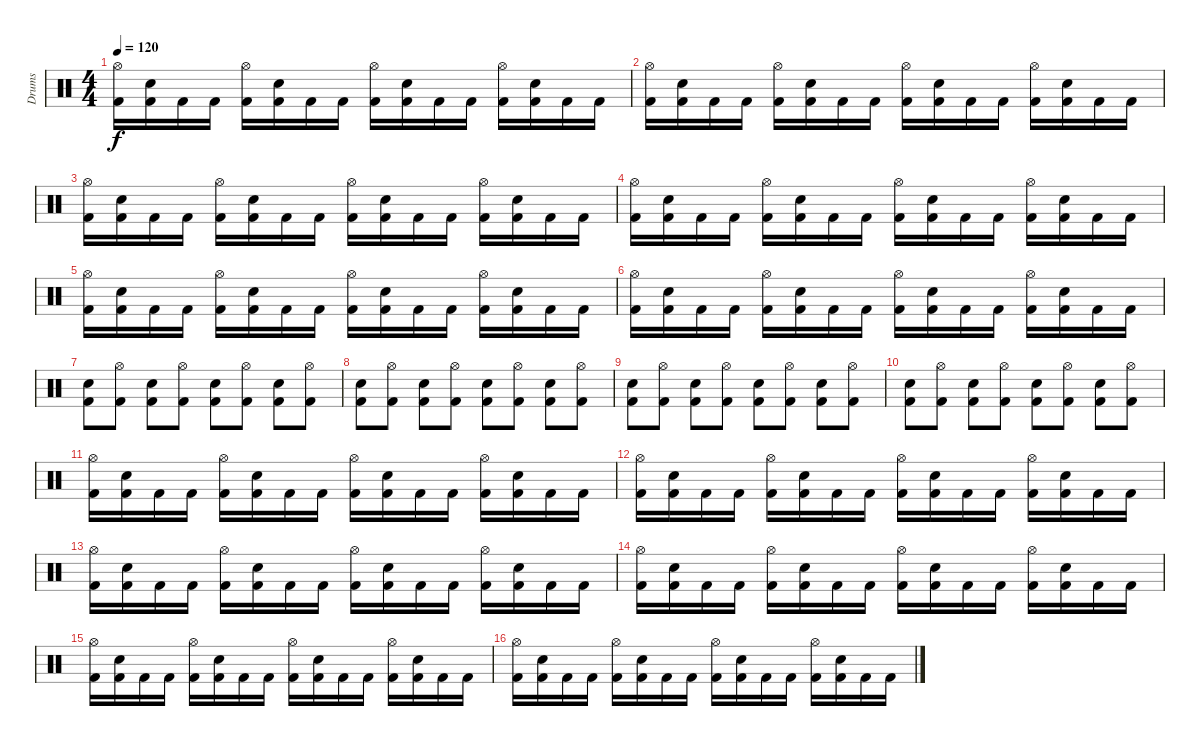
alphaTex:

\track ("Drums" "Drums") {instrument percussion}
\staff {score}
\articulation defaults
\ts (4 4)
\tempo 120
\clef neutral
\ks c
("Hi-Hat (open)" "Kick (hit) 2").16{dy f} ("Snare (hit) 2" "Kick (hit) 2").16 "Kick (hit) 2".16 "Kick (hit) 2".16 ("Hi-Hat (open)" "Kick (hit) 2").16 ("Snare (hit) 2" "Kick (hit) 2").16 "Kick (hit) 2".16 "Kick (hit) 2".16 ("Hi-Hat (open)" "Kick (hit) 2").16 ("Snare (hit) 2" "Kick (hit) 2").16 "Kick (hit) 2".16 "Kick (hit) 2".16 ("Hi-Hat (open)" "Kick (hit) 2").16 ("Snare (hit) 2" "Kick (hit) 2").16 "Kick (hit) 2".16 "Kick (hit) 2".16 |
("Hi-Hat (open)" "Kick (hit) 2").16 ("Snare (hit) 2" "Kick (hit) 2").16 "Kick (hit) 2".16 "Kick (hit) 2".16 ("Hi-Hat (open)" "Kick (hit) 2").16 ("Snare (hit) 2" "Kick (hit) 2").16 "Kick (hit) 2".16 "Kick (hit) 2".16 ("Hi-Hat (open)" "Kick (hit) 2").16 ("Snare (hit) 2" "Kick (hit) 2").16 "Kick (hit) 2".16 "Kick (hit) 2".16 ("Hi-Hat (open)" "Kick (hit) 2").16 ("Snare (hit) 2" "Kick (hit) 2").16 "Kick (hit) 2".16 "Kick (hit) 2".16 |
("Hi-Hat (open)" "Kick (hit) 2").16 ("Snare (hit) 2" "Kick (hit) 2").16 "Kick (hit) 2".16 "Kick (hit) 2".16 ("Hi-Hat (open)" "Kick (hit) 2").16 ("Snare (hit) 2" "Kick (hit) 2").16 "Kick (hit) 2".16 "Kick (hit) 2".16 ("Hi-Hat (open)" "Kick (hit) 2").16 ("Snare (hit) 2" "Kick (hit) 2").16 "Kick (hit) 2".16 "Kick (hit) 2".16 ("Hi-Hat (open)" "Kick (hit) 2").16 ("Snare (hit) 2" "Kick (hit) 2").16 "Kick (hit) 2".16 "Kick (hit) 2".16 |
("Hi-Hat (open)" "Kick (hit) 2").16 ("Snare (hit) 2" "Kick (hit) 2").16 "Kick (hit) 2".16 "Kick (hit) 2".16 ("Hi-Hat (open)" "Kick (hit) 2").16 ("Snare (hit) 2" "Kick (hit) 2").16 "Kick (hit) 2".16 "Kick (hit) 2".16 ("Hi-Hat (open)" "Kick (hit) 2").16 ("Snare (hit) 2" "Kick (hit) 2").16 "Kick (hit) 2".16 "Kick (hit) 2".16 ("Hi-Hat (open)" "Kick (hit) 2").16 ("Snare (hit) 2" "Kick (hit) 2").16 "Kick (hit) 2".16 "Kick (hit) 2".16 |
("Hi-Hat (open)" "Kick (hit) 2").16 ("Snare (hit) 2" "Kick (hit) 2").16 "Kick (hit) 2".16 "Kick (hit) 2".16 ("Hi-Hat (open)" "Kick (hit) 2").16 ("Snare (hit) 2" "Kick (hit) 2").16 "Kick (hit) 2".16 "Kick (hit) 2".16 ("Hi-Hat (open)" "Kick (hit) 2").16 ("Snare (hit) 2" "Kick (hit) 2").16 "Kick (hit) 2".16 "Kick (hit) 2".16 ("Hi-Hat (open)" "Kick (hit) 2").16 ("Snare (hit) 2" "Kick (hit) 2").16 "Kick (hit) 2".16 "Kick (hit) 2".16 |
("Hi-Hat (open)" "Kick (hit) 2").16 ("Snare (hit) 2" "Kick (hit) 2").16 "Kick (hit) 2".16 "Kick (hit) 2".16 ("Hi-Hat (open)" "Kick (hit) 2").16 ("Snare (hit) 2" "Kick (hit) 2").16 "Kick (hit) 2".16 "Kick (hit) 2".16 ("Hi-Hat (open)" "Kick (hit) 2").16 ("Snare (hit) 2" "Kick (hit) 2").16 "Kick (hit) 2".16 "Kick (hit) 2".16 ("Hi-Hat (open)" "Kick (hit) 2").16 ("Snare (hit) 2" "Kick (hit) 2").16 "Kick (hit) 2".16 "Kick (hit) 2".16 |
("Snare (hit) 2" "Kick (hit) 2").8 ("Hi-Hat (open)" "Kick (hit) 2").8 ("Snare (hit) 2" "Kick (hit) 2").8 ("Hi-Hat (open)" "Kick (hit) 2").8 ("Snare (hit) 2" "Kick (hit) 2").8 ("Hi-Hat (open)" "Kick (hit) 2").8 ("Snare (hit) 2" "Kick (hit) 2").8 ("Hi-Hat (open)" "Kick (hit) 2").8 |
("Snare (hit) 2" "Kick (hit) 2").8 ("Hi-Hat (open)" "Kick (hit) 2").8 ("Snare (hit) 2" "Kick (hit) 2").8 ("Hi-Hat (open)" "Kick (hit) 2").8 ("Snare (hit) 2" "Kick (hit) 2").8 ("Hi-Hat (open)" "Kick (hit) 2").8 ("Snare (hit) 2" "Kick (hit) 2").8 ("Hi-Hat (open)" "Kick (hit) 2").8 |
("Snare (hit) 2" "Kick (hit) 2").8 ("Hi-Hat (open)" "Kick (hit) 2").8 ("Snare (hit) 2" "Kick (hit) 2").8 ("Hi-Hat (open)" "Kick (hit) 2").8 ("Snare (hit) 2" "Kick (hit) 2").8 ("Hi-Hat (open)" "Kick (hit) 2").8 ("Snare (hit) 2" "Kick (hit) 2").8 ("Hi-Hat (open)" "Kick (hit) 2").8 |
("Snare (hit) 2" "Kick (hit) 2").8 ("Hi-Hat (open)" "Kick (hit) 2").8 ("Snare (hit) 2" "Kick (hit) 2").8 ("Hi-Hat (open)" "Kick (hit) 2").8 ("Snare (hit) 2" "Kick (hit) 2").8 ("Hi-Hat (open)" "Kick (hit) 2").8 ("Snare (hit) 2" "Kick (hit) 2").8 ("Hi-Hat (open)" "Kick (hit) 2").8 |
("Hi-Hat (open)" "Kick (hit) 2").16 ("Snare (hit) 2" "Kick (hit) 2").16 "Kick (hit) 2".16 "Kick (hit) 2".16 ("Hi-Hat (open)" "Kick (hit) 2").16 ("Snare (hit) 2" "Kick (hit) 2").16 "Kick (hit) 2".16 "Kick (hit) 2".16 ("Hi-Hat (open)" "Kick (hit) 2").16 ("Snare (hit) 2" "Kick (hit) 2").16 "Kick (hit) 2".16 "Kick (hit) 2".16 ("Hi-Hat (open)" "Kick (hit) 2").16 ("Snare (hit) 2" "Kick (hit) 2").16 "Kick (hit) 2".16 "Kick (hit) 2".16 |
("Hi-Hat (open)" "Kick (hit) 2").16 ("Snare (hit) 2" "Kick (hit) 2").16 "Kick (hit) 2".16 "Kick (hit) 2".16 ("Hi-Hat (open)" "Kick (hit) 2").16 ("Snare (hit) 2" "Kick (hit) 2").16 "Kick (hit) 2".16 "Kick (hit) 2".16 ("Hi-Hat (open)" "Kick (hit) 2").16 ("Snare (hit) 2" "Kick (hit) 2").16 "Kick (hit) 2".16 "Kick (hit) 2".16 ("Hi-Hat (open)" "Kick (hit) 2").16 ("Snare (hit) 2" "Kick (hit) 2").16 "Kick (hit) 2".16 "Kick (hit) 2".16 |
("Hi-Hat (open)" "Kick (hit) 2").16 ("Snare (hit) 2" "Kick (hit) 2").16 "Kick (hit) 2".16 "Kick (hit) 2".16 ("Hi-Hat (open)" "Kick (hit) 2").16 ("Snare (hit) 2" "Kick (hit) 2").16 "Kick (hit) 2".16 "Kick (hit) 2".16 ("Hi-Hat (open)" "Kick (hit) 2").16 ("Snare (hit) 2" "Kick (hit) 2").16 "Kick (hit) 2".16 "Kick (hit) 2".16 ("Hi-Hat (open)" "Kick (hit) 2").16 ("Snare (hit) 2" "Kick (hit) 2").16 "Kick (hit) 2".16 "Kick (hit) 2".16 |
("Hi-Hat (open)" "Kick (hit) 2").16 ("Snare (hit) 2" "Kick (hit) 2").16 "Kick (hit) 2".16 "Kick (hit) 2".16 ("Hi-Hat (open)" "Kick (hit) 2").16 ("Snare (hit) 2" "Kick (hit) 2").16 "Kick (hit) 2".16 "Kick (hit) 2".16 ("Hi-Hat (open)" "Kick (hit) 2").16 ("Snare (hit) 2" "Kick (hit) 2").16 "Kick (hit) 2".16 "Kick (hit) 2".16 ("Hi-Hat (open)" "Kick (hit) 2").16 ("Snare (hit) 2" "Kick (hit) 2").16 "Kick (hit) 2".16 "Kick (hit) 2".16 |
("Hi-Hat (open)" "Kick (hit) 2").16 ("Snare (hit) 2" "Kick (hit) 2").16 "Kick (hit) 2".16 "Kick (hit) 2".16 ("Hi-Hat (open)" "Kick (hit) 2").16 ("Snare (hit) 2" "Kick (hit) 2").16 "Kick (hit) 2".16 "Kick (hit) 2".16 ("Hi-Hat (open)" "Kick (hit) 2").16 ("Snare (hit) 2" "Kick (hit) 2").16 "Kick (hit) 2".16 "Kick (hit) 2".16 ("Hi-Hat (open)" "Kick (hit) 2").16 ("Snare (hit) 2" "Kick (hit) 2").16 "Kick (hit) 2".16 "Kick (hit) 2".16 |
("Hi-Hat (open)" "Kick (hit) 2").16 ("Snare (hit) 2" "Kick (hit) 2").16 "Kick (hit) 2".16 "Kick (hit) 2".16 ("Hi-Hat (open)" "Kick (hit) 2").16 ("Snare (hit) 2" "Kick (hit) 2").16 "Kick (hit) 2".16 "Kick (hit) 2".16 ("Hi-Hat (open)" "Kick (hit) 2").16 ("Snare (hit) 2" "Kick (hit) 2").16 "Kick (hit) 2".16 "Kick (hit) 2".16 ("Hi-Hat (open)" "Kick (hit) 2").16 ("Snare (hit) 2" "Kick (hit) 2").16 "Kick (hit) 2".16 "Kick (hit) 2".16
